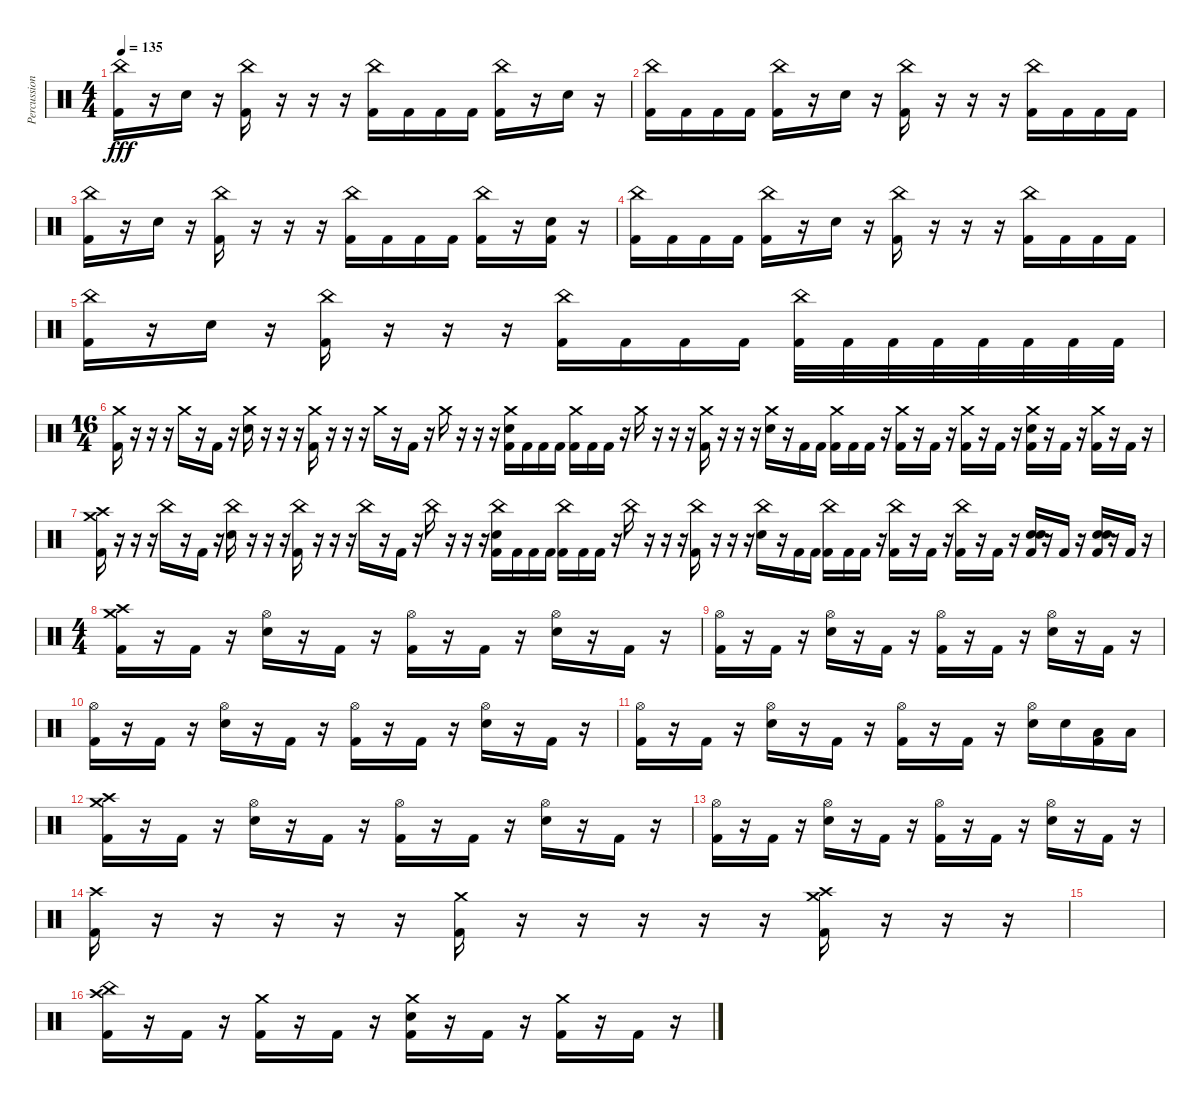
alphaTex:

\track ("Percussion" "Percussion") {instrument percussion}
\staff {score}
\articulation defaults
\ts (4 4)
\tempo 135
\clef neutral
\ks c
("China (hit)" "Kick (hit) 2").16{dy fff} r.16 "Snare (hit) 2".16 r.16 ("China (hit)" "Kick (hit) 2").16 r.16 r.16 r.16 ("China (hit)" "Kick (hit) 2").16 "Kick (hit) 2".16 "Kick (hit) 2".16 "Kick (hit) 2".16 ("China (hit)" "Kick (hit) 2").16 r.16 "Snare (hit) 2".16 r.16 |
("China (hit)" "Kick (hit) 2").16 "Kick (hit) 2".16 "Kick (hit) 2".16 "Kick (hit) 2".16 ("China (hit)" "Kick (hit) 2").16 r.16 "Snare (hit) 2".16 r.16 ("China (hit)" "Kick (hit) 2").16 r.16 r.16 r.16 ("China (hit)" "Kick (hit) 2").16 "Kick (hit) 2".16 "Kick (hit) 2".16 "Kick (hit) 2".16 |
("China (hit)" "Kick (hit) 2").16 r.16 "Snare (hit) 2".16 r.16 ("China (hit)" "Kick (hit) 2").16 r.16 r.16 r.16 ("China (hit)" "Kick (hit) 2").16 "Kick (hit) 2".16 "Kick (hit) 2".16 "Kick (hit) 2".16 ("China (hit)" "Kick (hit) 2").16 r.16 ("Snare (hit) 2" "Kick (hit) 2").16 r.16 |
("China (hit)" "Kick (hit) 2").16 "Kick (hit) 2".16 "Kick (hit) 2".16 "Kick (hit) 2".16 ("China (hit)" "Kick (hit) 2").16 r.16 "Snare (hit) 2".16 r.16 ("China (hit)" "Kick (hit) 2").16 r.16 r.16 r.16 ("China (hit)" "Kick (hit) 2").16 "Kick (hit) 2".16 "Kick (hit) 2".16 "Kick (hit) 2".16 |
("China (hit)" "Kick (hit) 2").16 r.16 "Snare (hit) 2".16 r.16 ("China (hit)" "Kick (hit) 2").16 r.16 r.16 r.16 ("China (hit)" "Kick (hit) 2").16 "Kick (hit) 2".16 "Kick (hit) 2".16 "Kick (hit) 2".16 ("China (hit)" "Kick (hit) 2").32 "Kick (hit) 2".32 "Kick (hit) 2".32 "Kick (hit) 2".32 "Kick (hit) 2".32 "Kick (hit) 2".32 "Kick (hit) 2".32 "Kick (hit) 2".32 |
\ts (16 4)
("Crash medium (hit)" "Kick (hit) 2").16 r.16 r.16 r.16 "Crash medium (hit)".16 r.16 "Kick (hit) 2".16 r.16 ("Crash medium (hit)" "Snare (hit) 2").16 r.16 r.16 r.16 ("Crash medium (hit)" "Kick (hit) 2").16 r.16 r.16 r.16 "Crash medium (hit)".16 r.16 "Kick (hit) 2".16 r.16 "Crash medium (hit)".16 r.16 r.16 r.16 ("Crash medium (hit)" "Snare (hit) 2" "Kick (hit) 2").16 "Kick (hit) 2".16 "Kick (hit) 2".16 "Kick (hit) 2".16 ("Crash medium (hit)" "Kick (hit) 2").16 "Kick (hit) 2".16 "Kick (hit) 2".16 r.16 "Crash medium (hit)".16 r.16 r.16 r.16 ("Crash medium (hit)" "Kick (hit) 2").16 r.16 r.16 r.16 ("Crash medium (hit)" "Snare (hit) 2").16 r.16 "Kick (hit) 2".16 "Kick (hit) 2".16 ("Crash medium (hit)" "Kick (hit) 2").16 "Kick (hit) 2".16 "Kick (hit) 2".16 r.16 ("Crash medium (hit)" "Kick (hit) 2").16 r.16 "Kick (hit) 2".16 r.16 ("Crash medium (hit)" "Kick (hit) 2").16 r.16 "Kick (hit) 2".16 r.16 ("Crash medium (hit)" "Snare (hit) 2" "Kick (hit) 2").16 r.16 "Kick (hit) 2".16 r.16 ("Crash medium (hit)" "Kick (hit) 2").16 r.16 "Kick (hit) 2".16 r.16 |
("Crash medium (hit)" "Crash high (hit)" "Kick (hit) 2").16 r.16 r.16 r.16 "China (hit)".16 r.16 "Kick (hit) 2".16 r.16 ("China (hit)" "Snare (hit) 2").16 r.16 r.16 r.16 ("China (hit)" "Kick (hit) 2").16 r.16 r.16 r.16 "China (hit)".16 r.16 "Kick (hit) 2".16 r.16 "China (hit)".16 r.16 r.16 r.16 ("China (hit)" "Snare (hit) 2" "Kick (hit) 2").16 "Kick (hit) 2".16 "Kick (hit) 2".16 "Kick (hit) 2".16 ("China (hit)" "Kick (hit) 2").16 "Kick (hit) 2".16 "Kick (hit) 2".16 r.16 "China (hit)".16 r.16 r.16 r.16 ("China (hit)" "Kick (hit) 2").16 r.16 r.16 r.16 ("China (hit)" "Snare (hit) 2").16 r.16 "Kick (hit) 2".16 "Kick (hit) 2".16 ("China (hit)" "Kick (hit) 2").16 "Kick (hit) 2".16 "Kick (hit) 2".16 r.16 ("China (hit)" "Kick (hit) 2").16 r.16 "Kick (hit) 2".16 r.16 ("China (hit)" "Kick (hit) 2").16 r.16 "Kick (hit) 2".16 r.16 ("Snare (hit) 2" "Snare (hit) 2" "Kick (hit) 2").16 r.16 "Kick (hit) 2".16 r.16 ("Snare (hit) 2" "Snare (hit) 2" "Kick (hit) 2").16 r.16 "Kick (hit) 2".16 r.16 |
\ts (4 4)
("Crash medium (hit)" "Crash high (hit)" "Kick (hit) 2").16 r.16 "Kick (hit) 2".16 r.16 ("Hi-Hat (open)" "Snare (hit) 2").16 r.16 "Kick (hit) 2".16 r.16 ("Hi-Hat (open)" "Kick (hit) 2").16 r.16 "Kick (hit) 2".16 r.16 ("Hi-Hat (open)" "Snare (hit) 2").16 r.16 "Kick (hit) 2".16 r.16 |
("Hi-Hat (open)" "Kick (hit) 2").16 r.16 "Kick (hit) 2".16 r.16 ("Hi-Hat (open)" "Snare (hit) 2").16 r.16 "Kick (hit) 2".16 r.16 ("Hi-Hat (open)" "Kick (hit) 2").16 r.16 "Kick (hit) 2".16 r.16 ("Hi-Hat (open)" "Snare (hit) 2").16 r.16 "Kick (hit) 2".16 r.16 |
("Hi-Hat (open)" "Kick (hit) 2").16 r.16 "Kick (hit) 2".16 r.16 ("Hi-Hat (open)" "Snare (hit) 2").16 r.16 "Kick (hit) 2".16 r.16 ("Hi-Hat (open)" "Kick (hit) 2").16 r.16 "Kick (hit) 2".16 r.16 ("Hi-Hat (open)" "Snare (hit) 2").16 r.16 "Kick (hit) 2".16 r.16 |
("Hi-Hat (open)" "Kick (hit) 2").16 r.16 "Kick (hit) 2".16 r.16 ("Hi-Hat (open)" "Snare (hit) 2").16 r.16 "Kick (hit) 2".16 r.16 ("Hi-Hat (open)" "Kick (hit) 2").16 r.16 "Kick (hit) 2".16 r.16 ("Hi-Hat (open)" "Snare (hit) 2").16 "Snare (hit) 2".16 ("Low Tom (hit)" "Kick (hit) 2").16 "Low Tom (hit)".16 |
("Crash medium (hit)" "Crash high (hit)" "Kick (hit) 2").16 r.16 "Kick (hit) 2".16 r.16 ("Hi-Hat (open)" "Snare (hit) 2").16 r.16 "Kick (hit) 2".16 r.16 ("Hi-Hat (open)" "Kick (hit) 2").16 r.16 "Kick (hit) 2".16 r.16 ("Hi-Hat (open)" "Snare (hit) 2").16 r.16 "Kick (hit) 2".16 r.16 |
("Hi-Hat (open)" "Kick (hit) 2").16 r.16 "Kick (hit) 2".16 r.16 ("Hi-Hat (open)" "Snare (hit) 2").16 r.16 "Kick (hit) 2".16 r.16 ("Hi-Hat (open)" "Kick (hit) 2").16 r.16 "Kick (hit) 2".16 r.16 ("Hi-Hat (open)" "Snare (hit) 2").16 r.16 "Kick (hit) 2".16 r.16 |
("Crash high (hit)" "Kick (hit) 2").16 r.16 r.16 r.16 r.16 r.16 ("Crash medium (hit)" "Kick (hit) 2").16 r.16 r.16 r.16 r.16 r.16 ("Crash high (hit)" "Crash medium (hit)" "Kick (hit) 2").16 r.16 r.16 r.16 |
|
("Crash high (hit)" "China (hit)" "Kick (hit) 2").16 r.16 "Kick (hit) 2".16 r.16 ("Crash medium (hit)" "Kick (hit) 2").16 r.16 "Kick (hit) 2".16 r.16 ("Crash medium (hit)" "Snare (hit) 2" "Kick (hit) 2").16 r.16 "Kick (hit) 2".16 r.16 ("Crash medium (hit)" "Kick (hit) 2").16 r.16 "Kick (hit) 2".16 r.16
